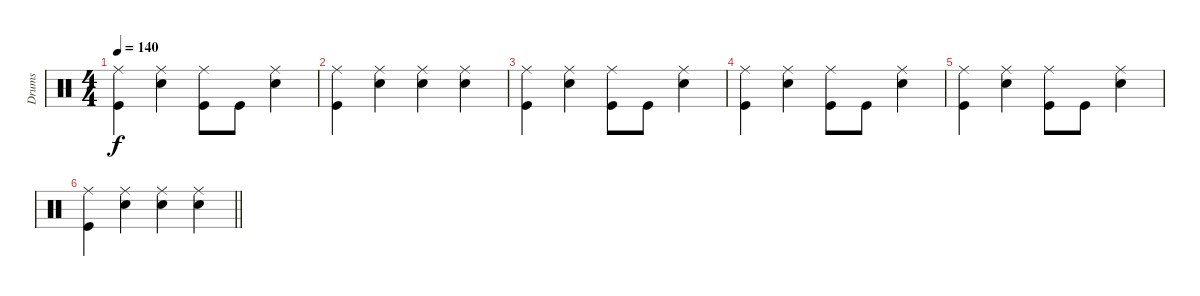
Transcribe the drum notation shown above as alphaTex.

\track ("Drums" "Drums") {instrument percussion}
\staff
\articulation defaults
\ts (4 4)
\tempo 140
\clef neutral
\ks c
("Kick (hit)" "Ride (middle)").4{dy f} ("Snare (hit) 2" "Ride (middle)").4 ("Kick (hit)" "Ride (middle)").8 "Kick (hit)".8 ("Snare (hit) 2" "Ride (middle)").4 |
("Kick (hit)" "Ride (middle)").4 ("Snare (hit) 2" "Ride (middle)").4 ("Snare (hit) 2" "Ride (middle)").4 ("Snare (hit) 2" "Ride (middle)").4 |
("Kick (hit)" "Ride (middle)").4 ("Snare (hit) 2" "Ride (middle)").4 ("Kick (hit)" "Ride (middle)").8 "Kick (hit)".8 ("Snare (hit) 2" "Ride (middle)").4 |
("Kick (hit)" "Ride (middle)").4 ("Snare (hit) 2" "Ride (middle)").4 ("Kick (hit)" "Ride (middle)").8 "Kick (hit)".8 ("Snare (hit) 2" "Ride (middle)").4 |
("Kick (hit)" "Ride (middle)").4 ("Snare (hit) 2" "Ride (middle)").4 ("Kick (hit)" "Ride (middle)").8 "Kick (hit)".8 ("Snare (hit) 2" "Ride (middle)").4 |
\barLineRight lightlight
("Kick (hit)" "Ride (middle)").4 ("Snare (hit) 2" "Ride (middle)").4 ("Snare (hit) 2" "Ride (middle)").4 ("Snare (hit) 2" "Ride (middle)").4
